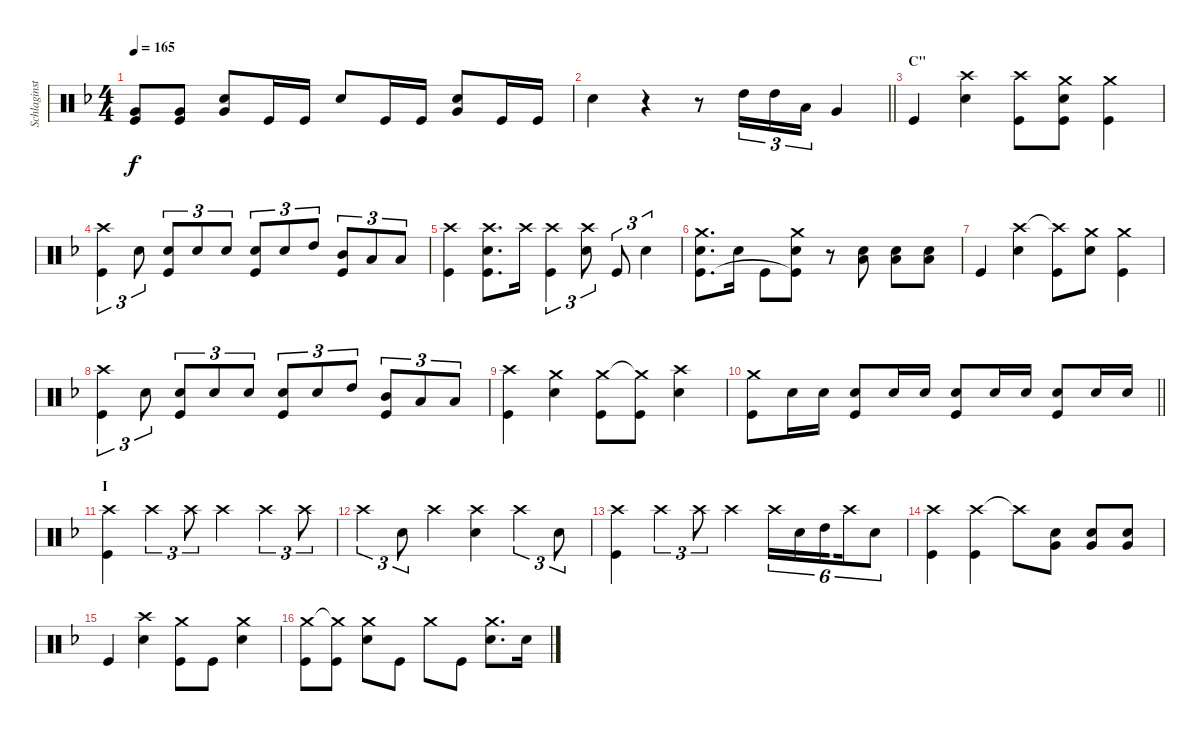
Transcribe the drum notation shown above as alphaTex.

\track ("Schlaginstrumente - Auswahl" "Schlaginst") {instrument percussion}
\staff {score}
\articulation defaults
\ts (4 4)
\tempo 165
\clef neutral
\ks f
("Very Low Tom (hit)" "Kick (hit)").8{dy f} ("Very Low Tom (hit)" "Kick (hit)").8 ("Very Low Tom (hit)" "Snare (hit) 2").8 "Kick (hit)".16 "Kick (hit)".16 "Snare (hit) 2".8 "Kick (hit)".16 "Kick (hit)".16 ("Very Low Tom (hit)" "Snare (hit) 2").8 "Kick (hit)".16 "Kick (hit)".16 |
\barLineRight lightlight "Snare (hit) 2".4
r.4 r.8 "High Tom (hit)".16{tu (3 2)} "High Tom (hit)".16{tu (3 2)} "Low Tom (hit)".16{tu (3 2)} "Very Low Tom (hit)".4 |
\section ("" "C\"")
"Kick (hit)".4 ("Crash high (hit)" "Snare (hit) 2").4 ("Crash high (hit)" "Kick (hit)").8 ("Crash medium (hit)" "Snare (hit) 2" "Kick (hit)").8 ("Crash medium (hit)" "Kick (hit)").4 |
("Crash high (hit)" "Kick (hit)").4{tu (3 2)} "Snare (hit) 2".8{tu (3 2)} ("Snare (hit) 2" "Kick (hit)").8{tu (3 2)} "Snare (hit) 2".8{tu (3 2)} "Snare (hit) 2".8{tu (3 2)} ("Snare (hit) 2" "Kick (hit)").8{tu (3 2)} "Snare (hit) 2".8{tu (3 2)} "High Tom (hit)".8{tu (3 2)} ("Mid Tom (hit)" "Kick (hit)").8{tu (3 2)} "Low Tom (hit)".8{tu (3 2)} "Low Tom (hit)".8{tu (3 2)} |
("Crash high (hit)" "Kick (hit)").4 ("Crash high (hit)" "Snare (hit) 2" "Kick (hit)").8{d} "Crash high (hit)".16 ("Crash high (hit)" "Kick (hit)").4{tu (3 2)} ("Crash high (hit)" "Snare (hit) 2").8{tu (3 2)} "Kick (hit)".8{tu (3 2)} "Snare (hit) 2".4{tu (3 2)} |
("Crash medium (hit)" "Snare (hit) 2" "Kick (hit)").8{d} "Snare (hit) 2".16 "Kick (hit)".8 ("Crash medium (hit)" "Snare (hit) 2" "Kick (hit)"{t}).8 r.8 ("Low Tom (hit)" "Snare (hit) 2").8 ("Low Tom (hit)" "Snare (hit) 2").8 ("Low Tom (hit)" "Snare (hit) 2").8 |
"Kick (hit)".4 ("Crash high (hit)" "Snare (hit) 2").4 ("Crash high (hit)"{t} "Kick (hit)").8 ("Crash medium (hit)" "Snare (hit) 2").8 ("Crash medium (hit)" "Kick (hit)").4 |
("Crash high (hit)" "Kick (hit)").4{tu (3 2)} "Snare (hit) 2".8{tu (3 2)} ("Snare (hit) 2" "Kick (hit)").8{tu (3 2)} "Snare (hit) 2".8{tu (3 2)} "Snare (hit) 2".8{tu (3 2)} ("Snare (hit) 2" "Kick (hit)").8{tu (3 2)} "Snare (hit) 2".8{tu (3 2)} "High Tom (hit)".8{tu (3 2)} ("Mid Tom (hit)" "Kick (hit)").8{tu (3 2)} "Low Tom (hit)".8{tu (3 2)} "Low Tom (hit)".8{tu (3 2)} |
("Crash high (hit)" "Kick (hit)").4 ("Crash medium (hit)" "Snare (hit) 2").4 ("Crash medium (hit)" "Kick (hit)").8 ("Crash medium (hit)"{t} "Kick (hit)").8 ("Crash high (hit)" "Snare (hit) 2").4 |
\barLineRight lightlight
("Crash medium (hit)" "Kick (hit)").8 "Snare (hit) 2".16 "Snare (hit) 2".16 ("Snare (hit) 2" "Kick (hit)").8 "Snare (hit) 2".16 "Snare (hit) 2".16 ("Snare (hit) 2" "Kick (hit)").8 "Snare (hit) 2".16 "Snare (hit) 2".16 ("Snare (hit) 2" "Kick (hit)").8 "Snare (hit) 2".16 "Snare (hit) 2".16 |
\section ("" "I")
("Crash high (hit)" "Kick (hit)").4 "Crash high (hit)".4{tu (3 2)} "Crash high (hit)".8{tu (3 2)} "Crash high (hit)".4 "Crash high (hit)".4{tu (3 2)} "Crash high (hit)".8{tu (3 2)} |
"Crash high (hit)".4{tu (3 2)} "Snare (hit) 2".8{tu (3 2)} "Crash high (hit)".4 ("Crash high (hit)" "Snare (hit) 2").4 "Crash high (hit)".4{tu (3 2)} "Snare (hit) 2".8{tu (3 2)} |
("Crash high (hit)" "Kick (hit)").4 "Crash high (hit)".4{tu (3 2)} "Crash high (hit)".8{tu (3 2)} "Crash high (hit)".4 "Crash high (hit)".16{tu (6 4)} "Snare (hit) 2".16{tu (6 4)} "High Tom (hit)".16{tu (6 4) beam splitsecondary} "Crash high (hit)".16{tu (6 4)} "Snare (hit) 2".8{tu (6 4)} |
("Crash high (hit)" "Kick (hit)").4 ("Crash high (hit)" "Kick (hit)").4 "Crash high (hit)"{t}.8 ("Very Low Tom (hit)" "Snare (hit) 2").8 ("Very Low Tom (hit)" "Snare (hit) 2").8 ("Very Low Tom (hit)" "Snare (hit) 2").8 |
"Kick (hit)".4 ("Crash high (hit)" "Snare (hit) 2").4 ("Crash medium (hit)" "Kick (hit)").8 "Kick (hit)".8 ("Crash medium (hit)" "Snare (hit) 2").4 |
("Crash medium (hit)" "Kick (hit)").8 ("Crash medium (hit)"{t} "Kick (hit)").8 ("Crash medium (hit)" "Snare (hit) 2").8 "Kick (hit)".8 "Crash medium (hit)".8 "Kick (hit)".8 ("Crash medium (hit)" "Snare (hit) 2").8{d} "Snare (hit) 2".16
